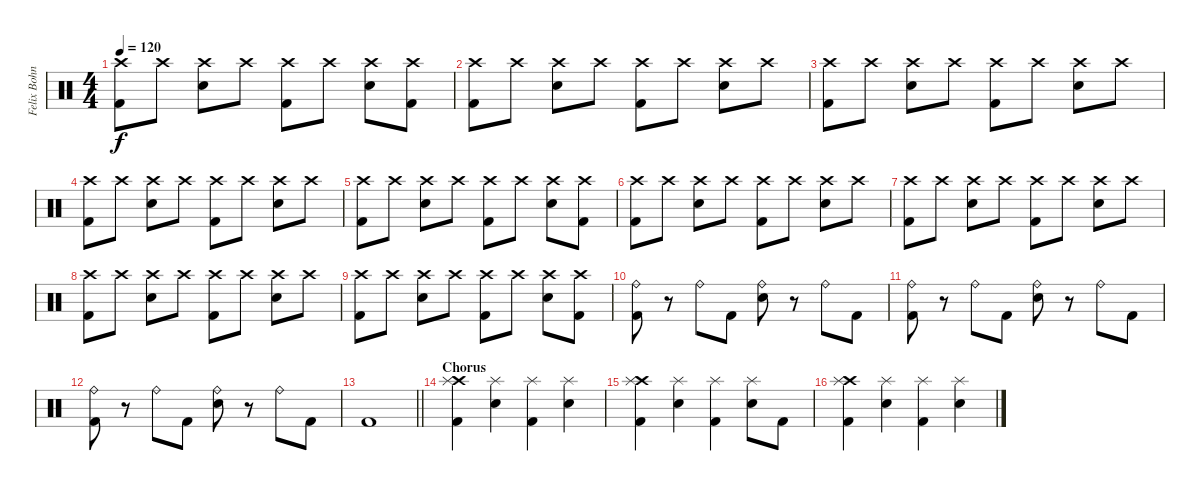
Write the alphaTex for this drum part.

\track ("Felix Bohnke (Drums)" "Felix Bohn") {instrument percussion}
\staff {score}
\articulation defaults
\ts (4 4)
\tempo 120
\clef neutral
\ks c
("Crash high (hit)" "Kick (hit) 2").8{dy f} "Crash high (hit)".8 ("Crash high (hit)" "Snare (hit) 2").8 "Crash high (hit)".8 ("Crash high (hit)" "Kick (hit) 2").8 "Crash high (hit)".8 ("Crash high (hit)" "Snare (hit) 2").8 ("Crash high (hit)" "Kick (hit) 2").8 |
("Crash high (hit)" "Kick (hit) 2").8 "Crash high (hit)".8 ("Crash high (hit)" "Snare (hit) 2").8 "Crash high (hit)".8 ("Crash high (hit)" "Kick (hit) 2").8 "Crash high (hit)".8 ("Crash high (hit)" "Snare (hit) 2").8 "Crash high (hit)".8 |
("Crash high (hit)" "Kick (hit) 2").8 "Crash high (hit)".8 ("Crash high (hit)" "Snare (hit) 2").8 "Crash high (hit)".8 ("Crash high (hit)" "Kick (hit) 2").8 "Crash high (hit)".8 ("Crash high (hit)" "Snare (hit) 2").8 "Crash high (hit)".8 |
("Crash high (hit)" "Kick (hit) 2").8 "Crash high (hit)".8 ("Crash high (hit)" "Snare (hit) 2").8 "Crash high (hit)".8 ("Crash high (hit)" "Kick (hit) 2").8 "Crash high (hit)".8 ("Crash high (hit)" "Snare (hit) 2").8 "Crash high (hit)".8 |
("Crash high (hit)" "Kick (hit) 2").8 "Crash high (hit)".8 ("Crash high (hit)" "Snare (hit) 2").8 "Crash high (hit)".8 ("Crash high (hit)" "Kick (hit) 2").8 "Crash high (hit)".8 ("Crash high (hit)" "Snare (hit) 2").8 ("Crash high (hit)" "Kick (hit) 2").8 |
("Crash high (hit)" "Kick (hit) 2").8 "Crash high (hit)".8 ("Crash high (hit)" "Snare (hit) 2").8 "Crash high (hit)".8 ("Crash high (hit)" "Kick (hit) 2").8 "Crash high (hit)".8 ("Crash high (hit)" "Snare (hit) 2").8 "Crash high (hit)".8 |
("Crash high (hit)" "Kick (hit) 2").8 "Crash high (hit)".8 ("Crash high (hit)" "Snare (hit) 2").8 "Crash high (hit)".8 ("Crash high (hit)" "Kick (hit) 2").8 "Crash high (hit)".8 ("Crash high (hit)" "Snare (hit) 2").8 "Crash high (hit)".8 |
("Crash high (hit)" "Kick (hit) 2").8 "Crash high (hit)".8 ("Crash high (hit)" "Snare (hit) 2").8 "Crash high (hit)".8 ("Crash high (hit)" "Kick (hit) 2").8 "Crash high (hit)".8 ("Crash high (hit)" "Snare (hit) 2").8 "Crash high (hit)".8 |
("Crash high (hit)" "Kick (hit) 2").8 "Crash high (hit)".8 ("Crash high (hit)" "Snare (hit) 2").8 "Crash high (hit)".8 ("Crash high (hit)" "Kick (hit) 2").8 "Crash high (hit)".8 ("Crash high (hit)" "Snare (hit) 2").8 ("Crash high (hit)" "Kick (hit) 2").8 |
("Ride (bell)" "Kick (hit) 2").8 r.8 "Ride (bell)".8 "Kick (hit) 2".8 ("Ride (bell)" "Snare (hit) 2").8 r.8 "Ride (bell)".8 "Kick (hit) 2".8 |
("Ride (bell)" "Kick (hit) 2").8 r.8 "Ride (bell)".8 "Kick (hit) 2".8 ("Ride (bell)" "Snare (hit) 2").8 r.8 "Ride (bell)".8 "Kick (hit) 2".8 |
("Ride (bell)" "Kick (hit) 2").8 r.8 "Ride (bell)".8 "Kick (hit) 2".8 ("Ride (bell)" "Snare (hit) 2").8 r.8 "Ride (bell)".8 "Kick (hit) 2".8 |
\barLineRight lightlight "Kick (hit) 2".1
|
\section ("" "Chorus")
("Crash high (hit)" "Splash (hit)" "Kick (hit) 2").4 ("Splash (hit)" "Snare (hit) 2").4 ("Splash (hit)" "Kick (hit) 2").4 ("Splash (hit)" "Snare (hit) 2").4 |
("Crash high (hit)" "Splash (hit)" "Kick (hit) 2").4 ("Splash (hit)" "Snare (hit) 2").4 ("Splash (hit)" "Kick (hit) 2").4 ("Splash (hit)" "Snare (hit) 2").8 "Kick (hit) 2".8 |
("Crash high (hit)" "Splash (hit)" "Kick (hit) 2").4 ("Splash (hit)" "Snare (hit) 2").4 ("Splash (hit)" "Kick (hit) 2").4 ("Splash (hit)" "Snare (hit) 2").4
